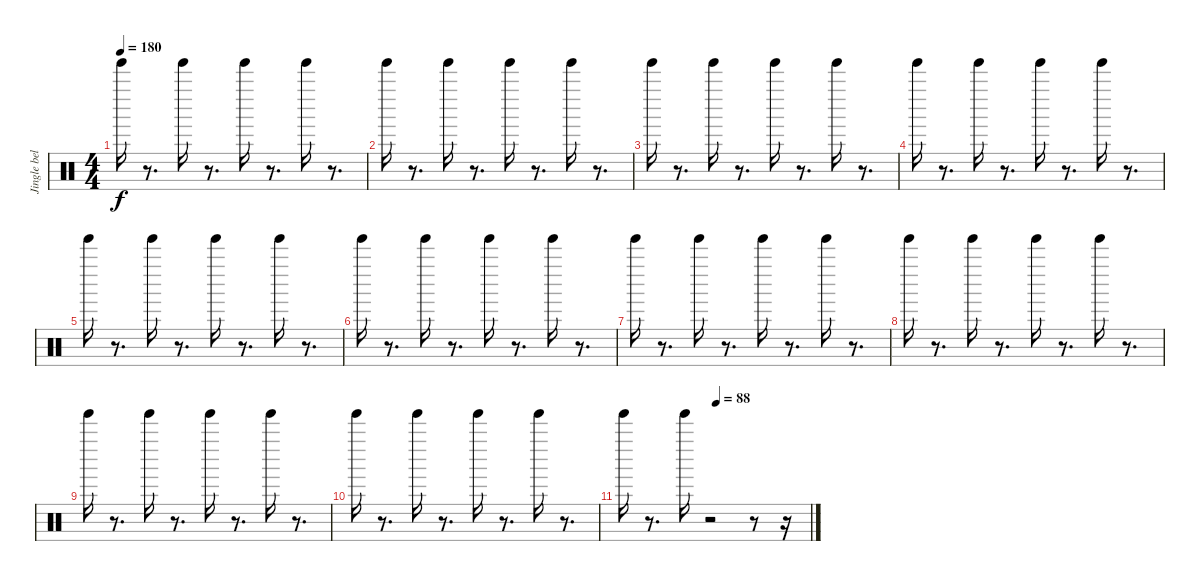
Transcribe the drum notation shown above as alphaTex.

\track ("Jingle bell" "Jingle bel") {instrument percussion}
\staff {score}
\articulation defaults
\ts (4 4)
\tempo 180
\clef neutral
\ks c "Tinkle Bell (hit)".16{dy f}
r.8{d} "Tinkle Bell (hit)".16 r.8{d} "Tinkle Bell (hit)".16 r.8{d} "Tinkle Bell (hit)".16 r.8{d} |
"Tinkle Bell (hit)".16 r.8{d} "Tinkle Bell (hit)".16 r.8{d} "Tinkle Bell (hit)".16 r.8{d} "Tinkle Bell (hit)".16 r.8{d} |
"Tinkle Bell (hit)".16 r.8{d} "Tinkle Bell (hit)".16 r.8{d} "Tinkle Bell (hit)".16 r.8{d} "Tinkle Bell (hit)".16 r.8{d} |
"Tinkle Bell (hit)".16 r.8{d} "Tinkle Bell (hit)".16 r.8{d} "Tinkle Bell (hit)".16 r.8{d} "Tinkle Bell (hit)".16 r.8{d} |
"Tinkle Bell (hit)".16 r.8{d} "Tinkle Bell (hit)".16 r.8{d} "Tinkle Bell (hit)".16 r.8{d} "Tinkle Bell (hit)".16 r.8{d} |
"Tinkle Bell (hit)".16 r.8{d} "Tinkle Bell (hit)".16 r.8{d} "Tinkle Bell (hit)".16 r.8{d} "Tinkle Bell (hit)".16 r.8{d} |
"Tinkle Bell (hit)".16 r.8{d} "Tinkle Bell (hit)".16 r.8{d} "Tinkle Bell (hit)".16 r.8{d} "Tinkle Bell (hit)".16 r.8{d} |
"Tinkle Bell (hit)".16 r.8{d} "Tinkle Bell (hit)".16 r.8{d} "Tinkle Bell (hit)".16 r.8{d} "Tinkle Bell (hit)".16 r.8{d} |
"Tinkle Bell (hit)".16 r.8{d} "Tinkle Bell (hit)".16 r.8{d} "Tinkle Bell (hit)".16 r.8{d} "Tinkle Bell (hit)".16 r.8{d} |
"Tinkle Bell (hit)".16 r.8{d} "Tinkle Bell (hit)".16 r.8{d} "Tinkle Bell (hit)".16 r.8{d} "Tinkle Bell (hit)".16 r.8{d} |
\tempo (88 0.5)
"Tinkle Bell (hit)".16 r.8{d} "Tinkle Bell (hit)".16 r.2 r.8 r.16
